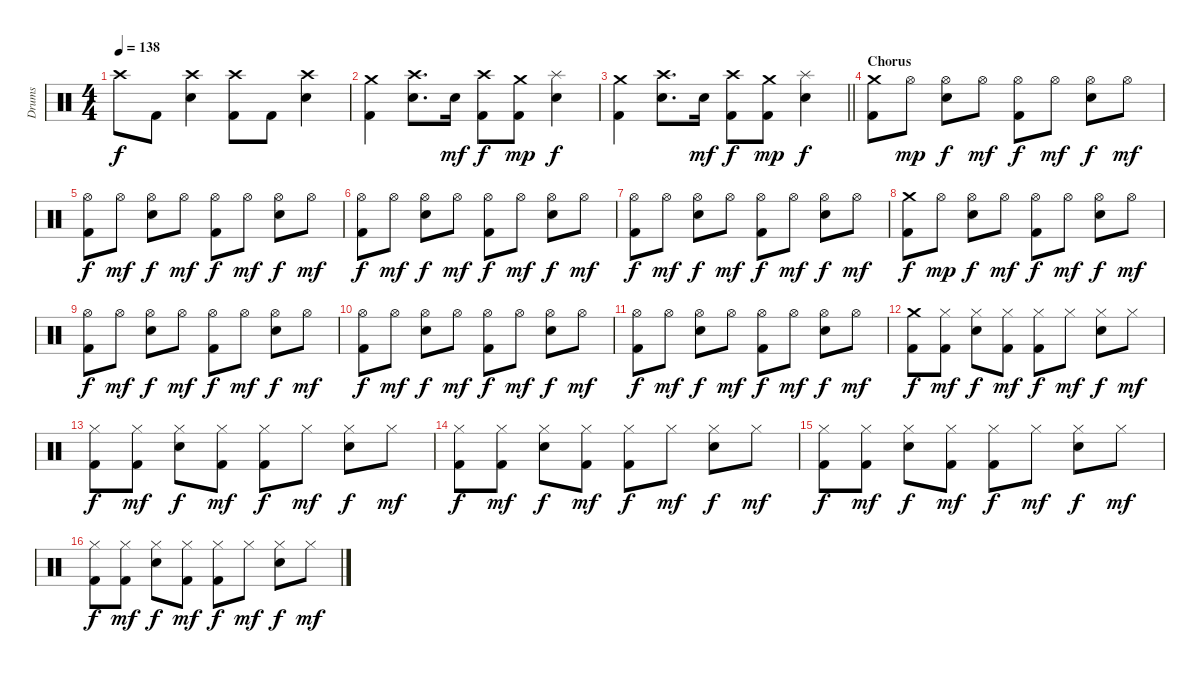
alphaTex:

\track ("Drums" "Drums") {instrument percussion}
\staff {score}
\articulation defaults
\ts (4 4)
\tempo 138
\clef neutral
\ks c "Crash high (hit)".8{dy f} "Kick (hit) 2".8
("Crash high (hit)" "Electric Snare (hit)").4 ("Crash high (hit)" "Kick (hit) 2").8 "Kick (hit) 2".8 ("Crash high (hit)" "Electric Snare (hit)").4 |
("Crash medium (hit)" "Kick (hit) 2").4 ("Crash high (hit)" "Electric Snare (hit)").8{d} "Electric Snare (hit)".16{dy mf} ("Crash high (hit)" "Kick (hit) 2").8{dy f} ("Crash medium (hit)" "Kick (hit) 2").8{dy mp} ("Splash (hit)" "Electric Snare (hit)").4{dy f} |
\barLineRight lightlight
("Crash medium (hit)" "Kick (hit) 2").4 ("Crash high (hit)" "Electric Snare (hit)").8{d} "Electric Snare (hit)".16{dy mf} ("Crash high (hit)" "Kick (hit) 2").8{dy f} ("Crash medium (hit)" "Kick (hit) 2").8{dy mp} ("Splash (hit)" "Electric Snare (hit)").4{dy f} |
\section ("" "Chorus")
("Crash medium (hit)" "Kick (hit) 2").8 "Hi-Hat (open)".8{dy mp} ("Hi-Hat (open)" "Electric Snare (hit)").8{dy f} "Hi-Hat (open)".8{dy mf} ("Hi-Hat (open)" "Kick (hit) 2").8{dy f} "Hi-Hat (open)".8{dy mf} ("Hi-Hat (open)" "Electric Snare (hit)").8{dy f} "Hi-Hat (open)".8{dy mf} |
("Hi-Hat (open)" "Kick (hit) 2").8{dy f} "Hi-Hat (open)".8{dy mf} ("Hi-Hat (open)" "Electric Snare (hit)").8{dy f} "Hi-Hat (open)".8{dy mf} ("Hi-Hat (open)" "Kick (hit) 2").8{dy f} "Hi-Hat (open)".8{dy mf} ("Hi-Hat (open)" "Electric Snare (hit)").8{dy f} "Hi-Hat (open)".8{dy mf} |
("Hi-Hat (open)" "Kick (hit) 2").8{dy f} "Hi-Hat (open)".8{dy mf} ("Hi-Hat (open)" "Electric Snare (hit)").8{dy f} "Hi-Hat (open)".8{dy mf} ("Hi-Hat (open)" "Kick (hit) 2").8{dy f} "Hi-Hat (open)".8{dy mf} ("Hi-Hat (open)" "Electric Snare (hit)").8{dy f} "Hi-Hat (open)".8{dy mf} |
("Hi-Hat (open)" "Kick (hit) 2").8{dy f} "Hi-Hat (open)".8{dy mf} ("Hi-Hat (open)" "Electric Snare (hit)").8{dy f} "Hi-Hat (open)".8{dy mf} ("Hi-Hat (open)" "Kick (hit) 2").8{dy f} "Hi-Hat (open)".8{dy mf} ("Hi-Hat (open)" "Electric Snare (hit)").8{dy f} "Hi-Hat (open)".8{dy mf} |
("Crash medium (hit)" "Kick (hit) 2").8{dy f} "Hi-Hat (open)".8{dy mp} ("Hi-Hat (open)" "Electric Snare (hit)").8{dy f} "Hi-Hat (open)".8{dy mf} ("Hi-Hat (open)" "Kick (hit) 2").8{dy f} "Hi-Hat (open)".8{dy mf} ("Hi-Hat (open)" "Electric Snare (hit)").8{dy f} "Hi-Hat (open)".8{dy mf} |
("Hi-Hat (open)" "Kick (hit) 2").8{dy f} "Hi-Hat (open)".8{dy mf} ("Hi-Hat (open)" "Electric Snare (hit)").8{dy f} "Hi-Hat (open)".8{dy mf} ("Hi-Hat (open)" "Kick (hit) 2").8{dy f} "Hi-Hat (open)".8{dy mf} ("Hi-Hat (open)" "Electric Snare (hit)").8{dy f} "Hi-Hat (open)".8{dy mf} |
("Hi-Hat (open)" "Kick (hit) 2").8{dy f} "Hi-Hat (open)".8{dy mf} ("Hi-Hat (open)" "Electric Snare (hit)").8{dy f} "Hi-Hat (open)".8{dy mf} ("Hi-Hat (open)" "Kick (hit) 2").8{dy f} "Hi-Hat (open)".8{dy mf} ("Hi-Hat (open)" "Electric Snare (hit)").8{dy f} "Hi-Hat (open)".8{dy mf} |
("Hi-Hat (open)" "Kick (hit) 2").8{dy f} "Hi-Hat (open)".8{dy mf} ("Hi-Hat (open)" "Electric Snare (hit)").8{dy f} "Hi-Hat (open)".8{dy mf} ("Hi-Hat (open)" "Kick (hit) 2").8{dy f} "Hi-Hat (open)".8{dy mf} ("Hi-Hat (open)" "Electric Snare (hit)").8{dy f} "Hi-Hat (open)".8{dy mf} |
("Crash medium (hit)" "Kick (hit) 2").8{dy f} ("Hi-Hat (closed)" "Kick (hit) 2").8{dy mf} ("Hi-Hat (closed)" "Electric Snare (hit)").8{dy f} ("Hi-Hat (closed)" "Kick (hit) 2").8{dy mf} ("Hi-Hat (closed)" "Kick (hit) 2").8{dy f} "Hi-Hat (closed)".8{dy mf} ("Hi-Hat (closed)" "Electric Snare (hit)").8{dy f} "Hi-Hat (closed)".8{dy mf} |
("Hi-Hat (closed)" "Kick (hit) 2").8{dy f} ("Hi-Hat (closed)" "Kick (hit) 2").8{dy mf} ("Hi-Hat (closed)" "Electric Snare (hit)").8{dy f} ("Hi-Hat (closed)" "Kick (hit) 2").8{dy mf} ("Hi-Hat (closed)" "Kick (hit) 2").8{dy f} "Hi-Hat (closed)".8{dy mf} ("Hi-Hat (closed)" "Electric Snare (hit)").8{dy f} "Hi-Hat (closed)".8{dy mf} |
("Hi-Hat (closed)" "Kick (hit) 2").8{dy f} ("Hi-Hat (closed)" "Kick (hit) 2").8{dy mf} ("Hi-Hat (closed)" "Electric Snare (hit)").8{dy f} ("Hi-Hat (closed)" "Kick (hit) 2").8{dy mf} ("Hi-Hat (closed)" "Kick (hit) 2").8{dy f} "Hi-Hat (closed)".8{dy mf} ("Hi-Hat (closed)" "Electric Snare (hit)").8{dy f} "Hi-Hat (closed)".8{dy mf} |
("Hi-Hat (closed)" "Kick (hit) 2").8{dy f} ("Hi-Hat (closed)" "Kick (hit) 2").8{dy mf} ("Hi-Hat (closed)" "Electric Snare (hit)").8{dy f} ("Hi-Hat (closed)" "Kick (hit) 2").8{dy mf} ("Hi-Hat (closed)" "Kick (hit) 2").8{dy f} "Hi-Hat (closed)".8{dy mf} ("Hi-Hat (closed)" "Electric Snare (hit)").8{dy f} "Hi-Hat (closed)".8{dy mf} |
("Hi-Hat (closed)" "Kick (hit) 2").8{dy f} ("Hi-Hat (closed)" "Kick (hit) 2").8{dy mf} ("Hi-Hat (closed)" "Electric Snare (hit)").8{dy f} ("Hi-Hat (closed)" "Kick (hit) 2").8{dy mf} ("Hi-Hat (closed)" "Kick (hit) 2").8{dy f} "Hi-Hat (closed)".8{dy mf} ("Hi-Hat (closed)" "Electric Snare (hit)").8{dy f} "Hi-Hat (closed)".8{dy mf}
